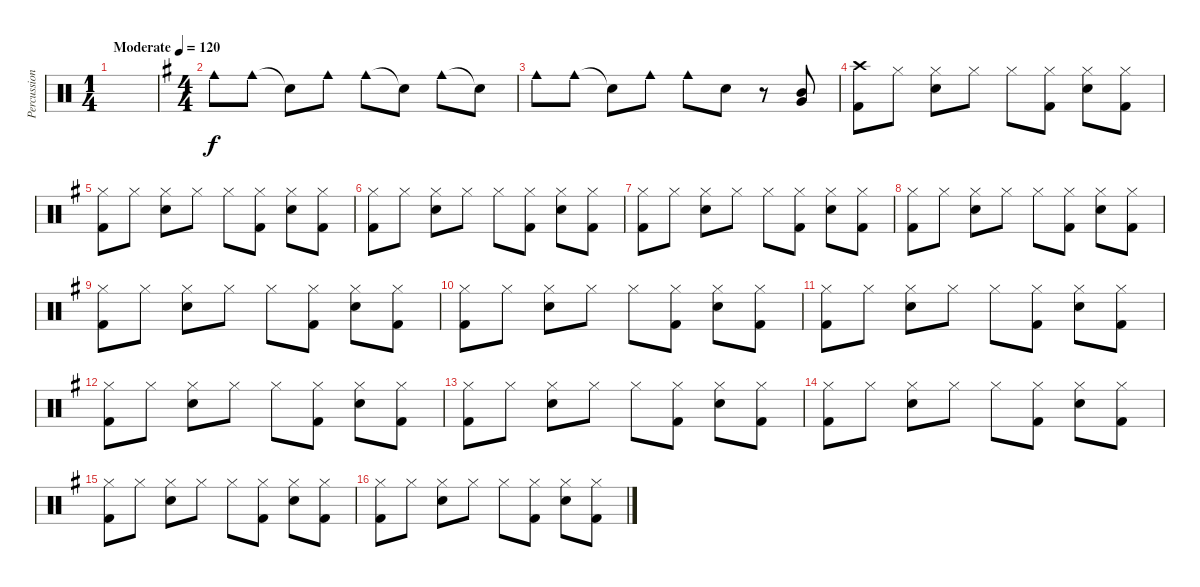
\track ("Percussion" "Percussion") {instrument percussion}
\staff {score}
\articulation defaults
\ts (1 4)
\tempo (120 "Moderate")
\clef neutral
\ks c
|
\ts (4 4)
\ks g "Cowbell medium (hit)".8 "Cowbell medium (hit)".8 "Snare (hit)"{t}.8 "Cowbell medium (hit)".8 "Cowbell medium (hit)".8 "Snare (hit)"{t}.8 "Cowbell medium (hit)".8 "Snare (hit)"{t}.8
|
"Cowbell medium (hit)".8 "Cowbell medium (hit)".8 "Snare (hit)"{t}.8 "Cowbell medium (hit)".8 "Cowbell medium (hit)".8 "Snare (hit) 2".8 r.8 ("Mid Tom (hit)" "Very Low Tom (hit)").8 |
("Crash high (hit)" "Kick (hit) 2").8 "Hi-Hat (closed)".8 ("Hi-Hat (closed)" "Snare (hit) 2").8 "Hi-Hat (closed)".8 "Hi-Hat (closed)".8 ("Hi-Hat (closed)" "Kick (hit) 2").8 ("Hi-Hat (closed)" "Snare (hit) 2").8 ("Hi-Hat (closed)" "Kick (hit) 2").8 |
("Hi-Hat (closed)" "Kick (hit) 2").8 "Hi-Hat (closed)".8 ("Hi-Hat (closed)" "Snare (hit) 2").8 "Hi-Hat (closed)".8 "Hi-Hat (closed)".8 ("Hi-Hat (closed)" "Kick (hit) 2").8 ("Hi-Hat (closed)" "Snare (hit) 2").8 ("Hi-Hat (closed)" "Kick (hit) 2").8 |
("Hi-Hat (closed)" "Kick (hit) 2").8 "Hi-Hat (closed)".8 ("Hi-Hat (closed)" "Snare (hit) 2").8 "Hi-Hat (closed)".8 "Hi-Hat (closed)".8 ("Hi-Hat (closed)" "Kick (hit) 2").8 ("Hi-Hat (closed)" "Snare (hit) 2").8 ("Hi-Hat (closed)" "Kick (hit) 2").8 |
("Hi-Hat (closed)" "Kick (hit) 2").8 "Hi-Hat (closed)".8 ("Hi-Hat (closed)" "Snare (hit) 2").8 "Hi-Hat (closed)".8 "Hi-Hat (closed)".8 ("Hi-Hat (closed)" "Kick (hit) 2").8 ("Hi-Hat (closed)" "Snare (hit) 2").8 ("Hi-Hat (closed)" "Kick (hit) 2").8 |
("Hi-Hat (closed)" "Kick (hit) 2").8 "Hi-Hat (closed)".8 ("Hi-Hat (closed)" "Snare (hit) 2").8 "Hi-Hat (closed)".8 "Hi-Hat (closed)".8 ("Hi-Hat (closed)" "Kick (hit) 2").8 ("Hi-Hat (closed)" "Snare (hit) 2").8 ("Hi-Hat (closed)" "Kick (hit) 2").8 |
("Hi-Hat (closed)" "Kick (hit) 2").8 "Hi-Hat (closed)".8 ("Hi-Hat (closed)" "Snare (hit) 2").8 "Hi-Hat (closed)".8 "Hi-Hat (closed)".8 ("Hi-Hat (closed)" "Kick (hit) 2").8 ("Hi-Hat (closed)" "Snare (hit) 2").8 ("Hi-Hat (closed)" "Kick (hit) 2").8 |
("Hi-Hat (closed)" "Kick (hit) 2").8 "Hi-Hat (closed)".8 ("Hi-Hat (closed)" "Snare (hit) 2").8 "Hi-Hat (closed)".8 "Hi-Hat (closed)".8 ("Hi-Hat (closed)" "Kick (hit) 2").8 ("Hi-Hat (closed)" "Snare (hit) 2").8 ("Hi-Hat (closed)" "Kick (hit) 2").8 |
("Hi-Hat (closed)" "Kick (hit) 2").8 "Hi-Hat (closed)".8 ("Hi-Hat (closed)" "Snare (hit) 2").8 "Hi-Hat (closed)".8 "Hi-Hat (closed)".8 ("Hi-Hat (closed)" "Kick (hit) 2").8 ("Hi-Hat (closed)" "Snare (hit) 2").8 ("Hi-Hat (closed)" "Kick (hit) 2").8 |
("Hi-Hat (closed)" "Kick (hit) 2").8 "Hi-Hat (closed)".8 ("Hi-Hat (closed)" "Snare (hit) 2").8 "Hi-Hat (closed)".8 "Hi-Hat (closed)".8 ("Hi-Hat (closed)" "Kick (hit) 2").8 ("Hi-Hat (closed)" "Snare (hit) 2").8 ("Hi-Hat (closed)" "Kick (hit) 2").8 |
("Hi-Hat (closed)" "Kick (hit) 2").8 "Hi-Hat (closed)".8 ("Hi-Hat (closed)" "Snare (hit) 2").8 "Hi-Hat (closed)".8 "Hi-Hat (closed)".8 ("Hi-Hat (closed)" "Kick (hit) 2").8 ("Hi-Hat (closed)" "Snare (hit) 2").8 ("Hi-Hat (closed)" "Kick (hit) 2").8 |
("Hi-Hat (closed)" "Kick (hit) 2").8 "Hi-Hat (closed)".8 ("Hi-Hat (closed)" "Snare (hit) 2").8 "Hi-Hat (closed)".8 "Hi-Hat (closed)".8 ("Hi-Hat (closed)" "Kick (hit) 2").8 ("Hi-Hat (closed)" "Snare (hit) 2").8 ("Hi-Hat (closed)" "Kick (hit) 2").8 |
("Hi-Hat (closed)" "Kick (hit) 2").8 "Hi-Hat (closed)".8 ("Hi-Hat (closed)" "Snare (hit) 2").8 "Hi-Hat (closed)".8 "Hi-Hat (closed)".8 ("Hi-Hat (closed)" "Kick (hit) 2").8 ("Hi-Hat (closed)" "Snare (hit) 2").8 ("Hi-Hat (closed)" "Kick (hit) 2").8 |
("Hi-Hat (closed)" "Kick (hit) 2").8 "Hi-Hat (closed)".8 ("Hi-Hat (closed)" "Snare (hit) 2").8 "Hi-Hat (closed)".8 "Hi-Hat (closed)".8 ("Hi-Hat (closed)" "Kick (hit) 2").8 ("Hi-Hat (closed)" "Snare (hit) 2").8 ("Hi-Hat (closed)" "Kick (hit) 2").8
